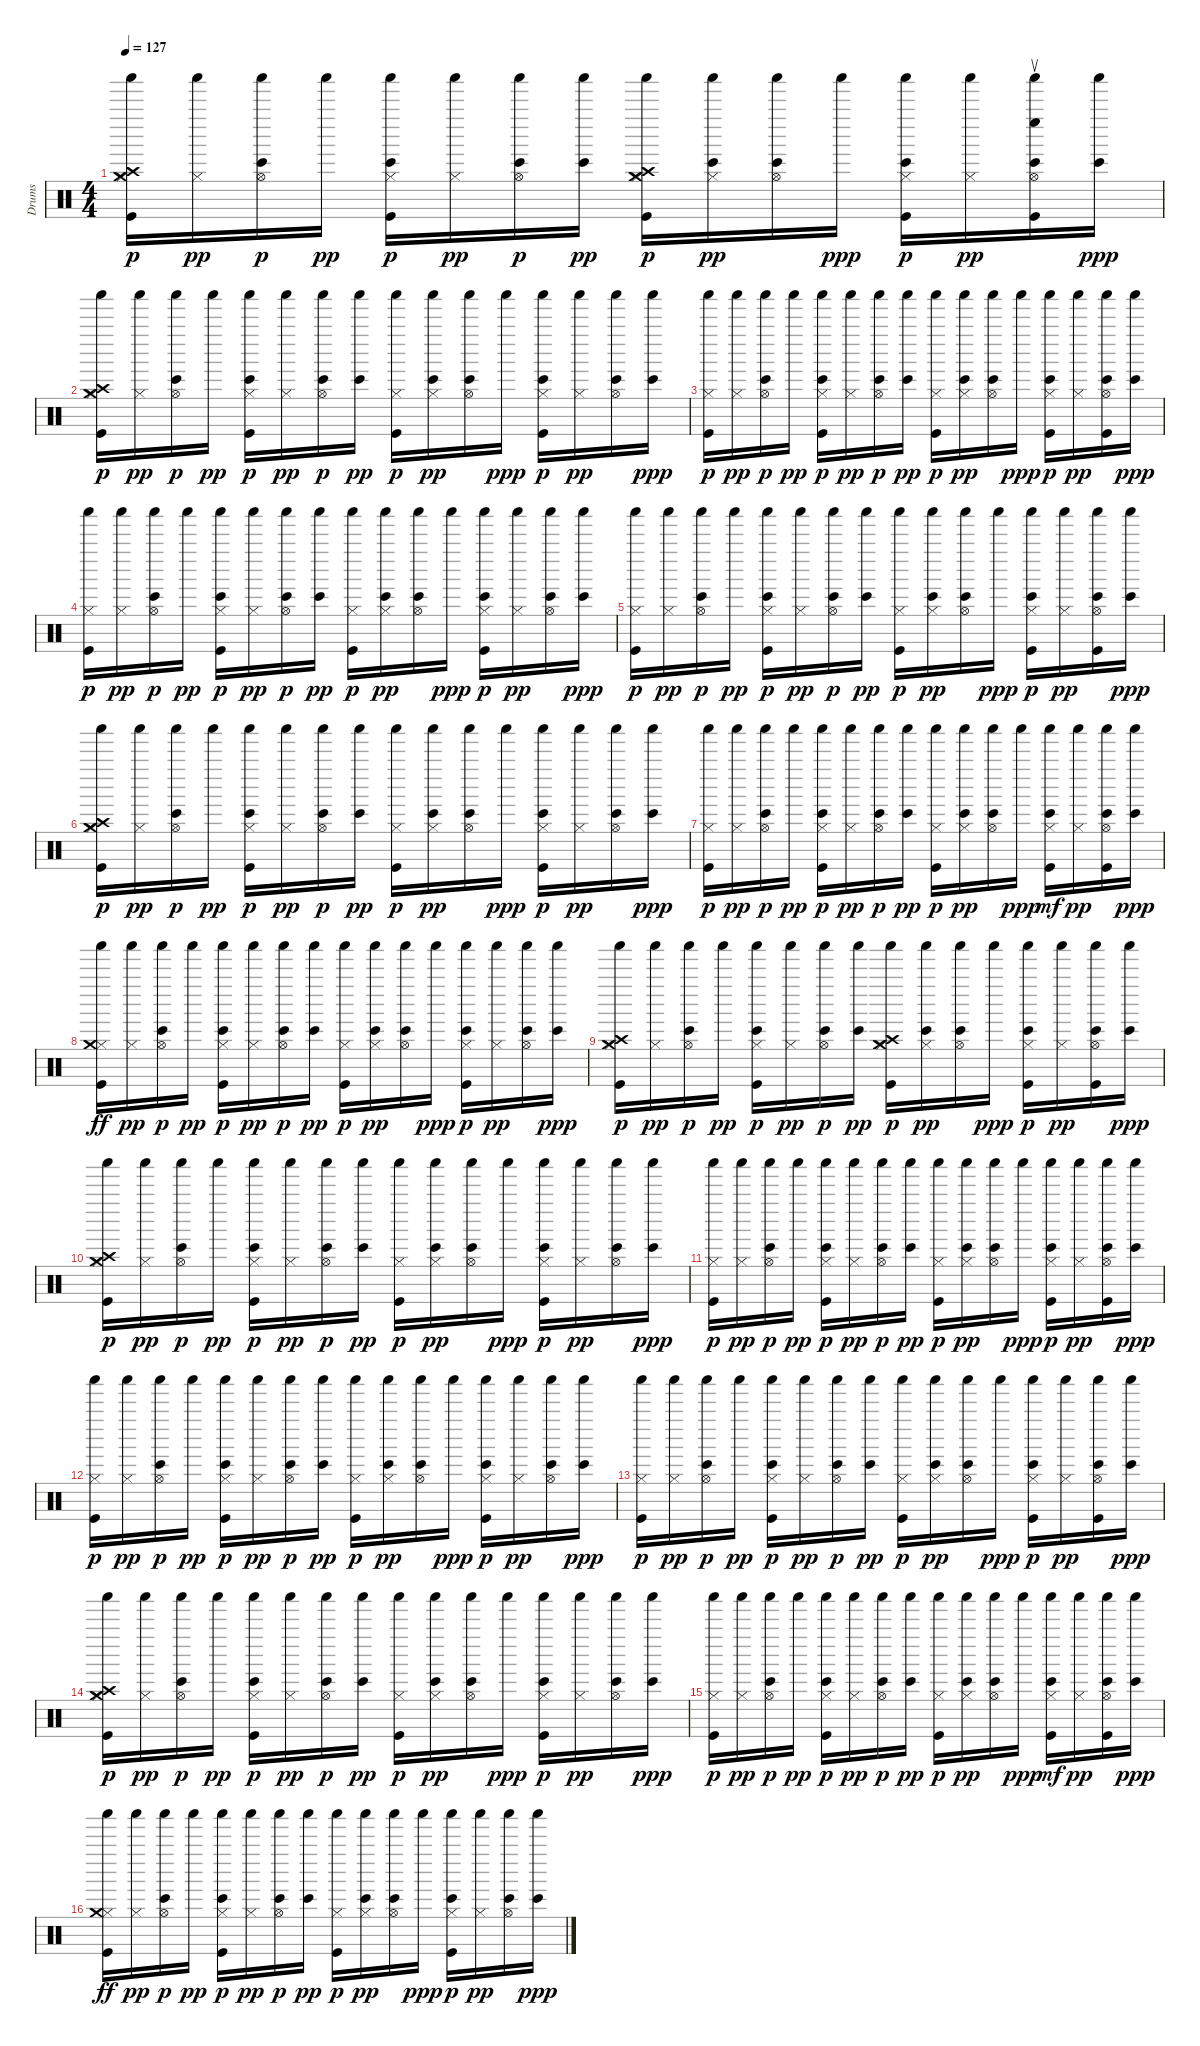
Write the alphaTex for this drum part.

\track ("Drums" "Drums") {instrument percussion}
\staff {score}
\articulation defaults
\ts (4 4)
\tempo 127
\clef neutral
\ks c
("Shaker (hit)" "Crash medium (hit)" "Kick (hit)" "Crash high (hit)" "Hi-Hat (closed)").16{dy p} ("Hi-Hat (closed)" "Shaker (hit)").16{dy pp} ("Bongo High (hit)" "Hi-Hat (open)" "Shaker (hit)").16{dy p} "Shaker (hit)".16{dy pp} ("Bongo High (hit)" "Kick (hit)" "Hi-Hat (closed)" "Shaker (hit)").16{dy p} ("Hi-Hat (closed)" "Shaker (hit)").16{dy pp} ("Bongo High (hit)" "Hi-Hat (open)" "Shaker (hit)").16{dy p} ("Bongo High (hit)" "Shaker (hit)").16{dy pp} ("Shaker (hit)" "Crash high (hit)" "Kick (hit)" "Crash medium (hit)" "Hi-Hat (closed)").16{dy p} ("Bongo High (hit)" "Hi-Hat (closed)" "Shaker (hit)").16{dy pp} ("Bongo High (hit)" "Hi-Hat (open)" "Shaker (hit)").16 "Shaker (hit)".16{dy ppp} ("Bongo High (hit)" "Kick (hit)" "Hi-Hat (closed)" "Shaker (hit)").16{dy p} ("Hi-Hat (closed)" "Shaker (hit)").16{dy pp} ("Kick (hit)" "Bongo High (hit)" "Hi-Hat (open)" "Shaker (hit)" "Left Maraca (return)").16 ("Bongo High (hit)" "Shaker (hit)").16{dy ppp} |
("Hi-Hat (closed)" "Crash medium (hit)" "Shaker (hit)" "Crash high (hit)" "Kick (hit)").16{dy p} ("Hi-Hat (closed)" "Shaker (hit)").16{dy pp} ("Bongo High (hit)" "Hi-Hat (open)" "Shaker (hit)").16{dy p} "Shaker (hit)".16{dy pp} ("Bongo High (hit)" "Kick (hit)" "Hi-Hat (closed)" "Shaker (hit)").16{dy p} ("Hi-Hat (closed)" "Shaker (hit)").16{dy pp} ("Bongo High (hit)" "Hi-Hat (open)" "Shaker (hit)").16{dy p} ("Bongo High (hit)" "Shaker (hit)").16{dy pp} ("Kick (hit)" "Hi-Hat (closed)" "Shaker (hit)").16{dy p} ("Bongo High (hit)" "Hi-Hat (closed)" "Shaker (hit)").16{dy pp} ("Bongo High (hit)" "Hi-Hat (open)" "Shaker (hit)").16 "Shaker (hit)".16{dy ppp} ("Bongo High (hit)" "Kick (hit)" "Hi-Hat (closed)" "Shaker (hit)").16{dy p} ("Hi-Hat (closed)" "Shaker (hit)").16{dy pp} ("Bongo High (hit)" "Hi-Hat (open)" "Shaker (hit)").16 ("Bongo High (hit)" "Shaker (hit)").16{dy ppp} |
("Kick (hit)" "Hi-Hat (closed)" "Shaker (hit)").16{dy p} ("Hi-Hat (closed)" "Shaker (hit)").16{dy pp} ("Bongo High (hit)" "Hi-Hat (open)" "Shaker (hit)").16{dy p} "Shaker (hit)".16{dy pp} ("Bongo High (hit)" "Kick (hit)" "Hi-Hat (closed)" "Shaker (hit)").16{dy p} ("Hi-Hat (closed)" "Shaker (hit)").16{dy pp} ("Bongo High (hit)" "Hi-Hat (open)" "Shaker (hit)").16{dy p} ("Bongo High (hit)" "Shaker (hit)").16{dy pp} ("Kick (hit)" "Hi-Hat (closed)" "Shaker (hit)").16{dy p} ("Bongo High (hit)" "Hi-Hat (closed)" "Shaker (hit)").16{dy pp} ("Bongo High (hit)" "Hi-Hat (open)" "Shaker (hit)").16 "Shaker (hit)".16{dy ppp} ("Bongo High (hit)" "Kick (hit)" "Hi-Hat (closed)" "Shaker (hit)").16{dy p} ("Hi-Hat (closed)" "Shaker (hit)").16{dy pp} ("Kick (hit)" "Bongo High (hit)" "Hi-Hat (open)" "Shaker (hit)").16 ("Bongo High (hit)" "Shaker (hit)").16{dy ppp} |
("Kick (hit)" "Hi-Hat (closed)" "Shaker (hit)").16{dy p} ("Hi-Hat (closed)" "Shaker (hit)").16{dy pp} ("Bongo High (hit)" "Hi-Hat (open)" "Shaker (hit)").16{dy p} "Shaker (hit)".16{dy pp} ("Bongo High (hit)" "Kick (hit)" "Hi-Hat (closed)" "Shaker (hit)").16{dy p} ("Hi-Hat (closed)" "Shaker (hit)").16{dy pp} ("Bongo High (hit)" "Hi-Hat (open)" "Shaker (hit)").16{dy p} ("Bongo High (hit)" "Shaker (hit)").16{dy pp} ("Kick (hit)" "Hi-Hat (closed)" "Shaker (hit)").16{dy p} ("Bongo High (hit)" "Hi-Hat (closed)" "Shaker (hit)").16{dy pp} ("Bongo High (hit)" "Hi-Hat (open)" "Shaker (hit)").16 "Shaker (hit)".16{dy ppp} ("Bongo High (hit)" "Kick (hit)" "Hi-Hat (closed)" "Shaker (hit)").16{dy p} ("Hi-Hat (closed)" "Shaker (hit)").16{dy pp} ("Bongo High (hit)" "Hi-Hat (open)" "Shaker (hit)").16 ("Bongo High (hit)" "Shaker (hit)").16{dy ppp} |
("Kick (hit)" "Hi-Hat (closed)" "Shaker (hit)").16{dy p} ("Hi-Hat (closed)" "Shaker (hit)").16{dy pp} ("Bongo High (hit)" "Hi-Hat (open)" "Shaker (hit)").16{dy p} "Shaker (hit)".16{dy pp} ("Bongo High (hit)" "Kick (hit)" "Hi-Hat (closed)" "Shaker (hit)").16{dy p} ("Hi-Hat (closed)" "Shaker (hit)").16{dy pp} ("Bongo High (hit)" "Hi-Hat (open)" "Shaker (hit)").16{dy p} ("Bongo High (hit)" "Shaker (hit)").16{dy pp} ("Kick (hit)" "Hi-Hat (closed)" "Shaker (hit)").16{dy p} ("Bongo High (hit)" "Hi-Hat (closed)" "Shaker (hit)").16{dy pp} ("Bongo High (hit)" "Hi-Hat (open)" "Shaker (hit)").16 "Shaker (hit)".16{dy ppp} ("Bongo High (hit)" "Kick (hit)" "Hi-Hat (closed)" "Shaker (hit)").16{dy p} ("Hi-Hat (closed)" "Shaker (hit)").16{dy pp} ("Kick (hit)" "Bongo High (hit)" "Hi-Hat (open)" "Shaker (hit)").16 ("Bongo High (hit)" "Shaker (hit)").16{dy ppp} |
("Kick (hit)" "Hi-Hat (closed)" "Crash medium (hit)" "Shaker (hit)" "Crash high (hit)").16{dy p} ("Hi-Hat (closed)" "Shaker (hit)").16{dy pp} ("Bongo High (hit)" "Hi-Hat (open)" "Shaker (hit)").16{dy p} "Shaker (hit)".16{dy pp} ("Bongo High (hit)" "Kick (hit)" "Hi-Hat (closed)" "Shaker (hit)").16{dy p} ("Hi-Hat (closed)" "Shaker (hit)").16{dy pp} ("Bongo High (hit)" "Hi-Hat (open)" "Shaker (hit)").16{dy p} ("Bongo High (hit)" "Shaker (hit)").16{dy pp} ("Kick (hit)" "Hi-Hat (closed)" "Shaker (hit)").16{dy p} ("Bongo High (hit)" "Hi-Hat (closed)" "Shaker (hit)").16{dy pp} ("Bongo High (hit)" "Hi-Hat (open)" "Shaker (hit)").16 "Shaker (hit)".16{dy ppp} ("Bongo High (hit)" "Kick (hit)" "Hi-Hat (closed)" "Shaker (hit)").16{dy p} ("Hi-Hat (closed)" "Shaker (hit)").16{dy pp} ("Bongo High (hit)" "Hi-Hat (open)" "Shaker (hit)").16 ("Bongo High (hit)" "Shaker (hit)").16{dy ppp} |
("Kick (hit)" "Hi-Hat (closed)" "Shaker (hit)").16{dy p} ("Hi-Hat (closed)" "Shaker (hit)").16{dy pp} ("Bongo High (hit)" "Hi-Hat (open)" "Shaker (hit)").16{dy p} "Shaker (hit)".16{dy pp} ("Bongo High (hit)" "Kick (hit)" "Hi-Hat (closed)" "Shaker (hit)").16{dy p} ("Hi-Hat (closed)" "Shaker (hit)").16{dy pp} ("Bongo High (hit)" "Hi-Hat (open)" "Shaker (hit)").16{dy p} ("Bongo High (hit)" "Shaker (hit)").16{dy pp} ("Kick (hit)" "Hi-Hat (closed)" "Shaker (hit)").16{dy p} ("Bongo High (hit)" "Hi-Hat (closed)" "Shaker (hit)").16{dy pp} ("Bongo High (hit)" "Hi-Hat (open)" "Shaker (hit)").16 "Shaker (hit)".16{dy ppp} ("Kick (hit)" "Hi-Hat (closed)" "Shaker (hit)" "Bongo High (hit)").16{dy mf} ("Hi-Hat (closed)" "Shaker (hit)").16{dy pp} ("Kick (hit)" "Bongo High (hit)" "Hi-Hat (open)" "Shaker (hit)").16 ("Bongo High (hit)" "Shaker (hit)").16{dy ppp} |
("Hi-Hat (closed)" "Shaker (hit)" "Crash medium (hit)" "Kick (hit)").16{dy ff} ("Hi-Hat (closed)" "Shaker (hit)").16{dy pp} ("Bongo High (hit)" "Hi-Hat (open)" "Shaker (hit)").16{dy p} "Shaker (hit)".16{dy pp} ("Bongo High (hit)" "Kick (hit)" "Hi-Hat (closed)" "Shaker (hit)").16{dy p} ("Hi-Hat (closed)" "Shaker (hit)").16{dy pp} ("Bongo High (hit)" "Hi-Hat (open)" "Shaker (hit)").16{dy p} ("Bongo High (hit)" "Shaker (hit)").16{dy pp} ("Kick (hit)" "Hi-Hat (closed)" "Shaker (hit)").16{dy p} ("Bongo High (hit)" "Hi-Hat (closed)" "Shaker (hit)").16{dy pp} ("Bongo High (hit)" "Hi-Hat (open)" "Shaker (hit)").16 "Shaker (hit)".16{dy ppp} ("Bongo High (hit)" "Kick (hit)" "Hi-Hat (closed)" "Shaker (hit)").16{dy p} ("Hi-Hat (closed)" "Shaker (hit)").16{dy pp} ("Bongo High (hit)" "Hi-Hat (open)" "Shaker (hit)").16 ("Bongo High (hit)" "Shaker (hit)").16{dy ppp} |
("Shaker (hit)" "Crash medium (hit)" "Kick (hit)" "Crash high (hit)" "Hi-Hat (closed)").16{dy p} ("Hi-Hat (closed)" "Shaker (hit)").16{dy pp} ("Bongo High (hit)" "Hi-Hat (open)" "Shaker (hit)").16{dy p} "Shaker (hit)".16{dy pp} ("Bongo High (hit)" "Kick (hit)" "Hi-Hat (closed)" "Shaker (hit)").16{dy p} ("Hi-Hat (closed)" "Shaker (hit)").16{dy pp} ("Bongo High (hit)" "Hi-Hat (open)" "Shaker (hit)").16{dy p} ("Bongo High (hit)" "Shaker (hit)").16{dy pp} ("Shaker (hit)" "Crash high (hit)" "Kick (hit)" "Crash medium (hit)" "Hi-Hat (closed)").16{dy p} ("Bongo High (hit)" "Hi-Hat (closed)" "Shaker (hit)").16{dy pp} ("Bongo High (hit)" "Hi-Hat (open)" "Shaker (hit)").16 "Shaker (hit)".16{dy ppp} ("Bongo High (hit)" "Kick (hit)" "Hi-Hat (closed)" "Shaker (hit)").16{dy p} ("Hi-Hat (closed)" "Shaker (hit)").16{dy pp} ("Kick (hit)" "Bongo High (hit)" "Hi-Hat (open)" "Shaker (hit)").16 ("Bongo High (hit)" "Shaker (hit)").16{dy ppp} |
("Hi-Hat (closed)" "Crash medium (hit)" "Shaker (hit)" "Crash high (hit)" "Kick (hit)").16{dy p} ("Hi-Hat (closed)" "Shaker (hit)").16{dy pp} ("Bongo High (hit)" "Hi-Hat (open)" "Shaker (hit)").16{dy p} "Shaker (hit)".16{dy pp} ("Bongo High (hit)" "Kick (hit)" "Hi-Hat (closed)" "Shaker (hit)").16{dy p} ("Hi-Hat (closed)" "Shaker (hit)").16{dy pp} ("Bongo High (hit)" "Hi-Hat (open)" "Shaker (hit)").16{dy p} ("Bongo High (hit)" "Shaker (hit)").16{dy pp} ("Kick (hit)" "Hi-Hat (closed)" "Shaker (hit)").16{dy p} ("Bongo High (hit)" "Hi-Hat (closed)" "Shaker (hit)").16{dy pp} ("Bongo High (hit)" "Hi-Hat (open)" "Shaker (hit)").16 "Shaker (hit)".16{dy ppp} ("Bongo High (hit)" "Kick (hit)" "Hi-Hat (closed)" "Shaker (hit)").16{dy p} ("Hi-Hat (closed)" "Shaker (hit)").16{dy pp} ("Bongo High (hit)" "Hi-Hat (open)" "Shaker (hit)").16 ("Bongo High (hit)" "Shaker (hit)").16{dy ppp} |
("Kick (hit)" "Hi-Hat (closed)" "Shaker (hit)").16{dy p} ("Hi-Hat (closed)" "Shaker (hit)").16{dy pp} ("Bongo High (hit)" "Hi-Hat (open)" "Shaker (hit)").16{dy p} "Shaker (hit)".16{dy pp} ("Bongo High (hit)" "Kick (hit)" "Hi-Hat (closed)" "Shaker (hit)").16{dy p} ("Hi-Hat (closed)" "Shaker (hit)").16{dy pp} ("Bongo High (hit)" "Hi-Hat (open)" "Shaker (hit)").16{dy p} ("Bongo High (hit)" "Shaker (hit)").16{dy pp} ("Kick (hit)" "Hi-Hat (closed)" "Shaker (hit)").16{dy p} ("Bongo High (hit)" "Hi-Hat (closed)" "Shaker (hit)").16{dy pp} ("Bongo High (hit)" "Hi-Hat (open)" "Shaker (hit)").16 "Shaker (hit)".16{dy ppp} ("Bongo High (hit)" "Kick (hit)" "Hi-Hat (closed)" "Shaker (hit)").16{dy p} ("Hi-Hat (closed)" "Shaker (hit)").16{dy pp} ("Kick (hit)" "Bongo High (hit)" "Hi-Hat (open)" "Shaker (hit)").16 ("Bongo High (hit)" "Shaker (hit)").16{dy ppp} |
("Kick (hit)" "Hi-Hat (closed)" "Shaker (hit)").16{dy p} ("Hi-Hat (closed)" "Shaker (hit)").16{dy pp} ("Bongo High (hit)" "Hi-Hat (open)" "Shaker (hit)").16{dy p} "Shaker (hit)".16{dy pp} ("Bongo High (hit)" "Kick (hit)" "Hi-Hat (closed)" "Shaker (hit)").16{dy p} ("Hi-Hat (closed)" "Shaker (hit)").16{dy pp} ("Bongo High (hit)" "Hi-Hat (open)" "Shaker (hit)").16{dy p} ("Bongo High (hit)" "Shaker (hit)").16{dy pp} ("Kick (hit)" "Hi-Hat (closed)" "Shaker (hit)").16{dy p} ("Bongo High (hit)" "Hi-Hat (closed)" "Shaker (hit)").16{dy pp} ("Bongo High (hit)" "Hi-Hat (open)" "Shaker (hit)").16 "Shaker (hit)".16{dy ppp} ("Bongo High (hit)" "Kick (hit)" "Hi-Hat (closed)" "Shaker (hit)").16{dy p} ("Hi-Hat (closed)" "Shaker (hit)").16{dy pp} ("Bongo High (hit)" "Hi-Hat (open)" "Shaker (hit)").16 ("Bongo High (hit)" "Shaker (hit)").16{dy ppp} |
("Kick (hit)" "Hi-Hat (closed)" "Shaker (hit)").16{dy p} ("Hi-Hat (closed)" "Shaker (hit)").16{dy pp} ("Bongo High (hit)" "Hi-Hat (open)" "Shaker (hit)").16{dy p} "Shaker (hit)".16{dy pp} ("Bongo High (hit)" "Kick (hit)" "Hi-Hat (closed)" "Shaker (hit)").16{dy p} ("Hi-Hat (closed)" "Shaker (hit)").16{dy pp} ("Bongo High (hit)" "Hi-Hat (open)" "Shaker (hit)").16{dy p} ("Bongo High (hit)" "Shaker (hit)").16{dy pp} ("Kick (hit)" "Hi-Hat (closed)" "Shaker (hit)").16{dy p} ("Bongo High (hit)" "Hi-Hat (closed)" "Shaker (hit)").16{dy pp} ("Bongo High (hit)" "Hi-Hat (open)" "Shaker (hit)").16 "Shaker (hit)".16{dy ppp} ("Bongo High (hit)" "Kick (hit)" "Hi-Hat (closed)" "Shaker (hit)").16{dy p} ("Hi-Hat (closed)" "Shaker (hit)").16{dy pp} ("Kick (hit)" "Bongo High (hit)" "Hi-Hat (open)" "Shaker (hit)").16 ("Bongo High (hit)" "Shaker (hit)").16{dy ppp} |
("Kick (hit)" "Hi-Hat (closed)" "Crash medium (hit)" "Shaker (hit)" "Crash high (hit)").16{dy p} ("Hi-Hat (closed)" "Shaker (hit)").16{dy pp} ("Bongo High (hit)" "Hi-Hat (open)" "Shaker (hit)").16{dy p} "Shaker (hit)".16{dy pp} ("Bongo High (hit)" "Kick (hit)" "Hi-Hat (closed)" "Shaker (hit)").16{dy p} ("Hi-Hat (closed)" "Shaker (hit)").16{dy pp} ("Bongo High (hit)" "Hi-Hat (open)" "Shaker (hit)").16{dy p} ("Bongo High (hit)" "Shaker (hit)").16{dy pp} ("Kick (hit)" "Hi-Hat (closed)" "Shaker (hit)").16{dy p} ("Bongo High (hit)" "Hi-Hat (closed)" "Shaker (hit)").16{dy pp} ("Bongo High (hit)" "Hi-Hat (open)" "Shaker (hit)").16 "Shaker (hit)".16{dy ppp} ("Bongo High (hit)" "Kick (hit)" "Hi-Hat (closed)" "Shaker (hit)").16{dy p} ("Hi-Hat (closed)" "Shaker (hit)").16{dy pp} ("Bongo High (hit)" "Hi-Hat (open)" "Shaker (hit)").16 ("Bongo High (hit)" "Shaker (hit)").16{dy ppp} |
("Kick (hit)" "Hi-Hat (closed)" "Shaker (hit)").16{dy p} ("Hi-Hat (closed)" "Shaker (hit)").16{dy pp} ("Bongo High (hit)" "Hi-Hat (open)" "Shaker (hit)").16{dy p} "Shaker (hit)".16{dy pp} ("Bongo High (hit)" "Kick (hit)" "Hi-Hat (closed)" "Shaker (hit)").16{dy p} ("Hi-Hat (closed)" "Shaker (hit)").16{dy pp} ("Bongo High (hit)" "Hi-Hat (open)" "Shaker (hit)").16{dy p} ("Bongo High (hit)" "Shaker (hit)").16{dy pp} ("Kick (hit)" "Hi-Hat (closed)" "Shaker (hit)").16{dy p} ("Bongo High (hit)" "Hi-Hat (closed)" "Shaker (hit)").16{dy pp} ("Bongo High (hit)" "Hi-Hat (open)" "Shaker (hit)").16 "Shaker (hit)".16{dy ppp} ("Kick (hit)" "Hi-Hat (closed)" "Shaker (hit)" "Bongo High (hit)").16{dy mf} ("Hi-Hat (closed)" "Shaker (hit)").16{dy pp} ("Kick (hit)" "Bongo High (hit)" "Hi-Hat (open)" "Shaker (hit)").16 ("Bongo High (hit)" "Shaker (hit)").16{dy ppp} |
("Hi-Hat (closed)" "Shaker (hit)" "Crash medium (hit)" "Kick (hit)").16{dy ff} ("Hi-Hat (closed)" "Shaker (hit)").16{dy pp} ("Bongo High (hit)" "Hi-Hat (open)" "Shaker (hit)").16{dy p volume 13} "Shaker (hit)".16{dy pp volume 13} ("Bongo High (hit)" "Kick (hit)" "Hi-Hat (closed)" "Shaker (hit)").16{dy p volume 13} ("Hi-Hat (closed)" "Shaker (hit)").16{dy pp volume 13} ("Bongo High (hit)" "Hi-Hat (open)" "Shaker (hit)").16{dy p volume 13} ("Bongo High (hit)" "Shaker (hit)").16{dy pp volume 13} ("Kick (hit)" "Hi-Hat (closed)" "Shaker (hit)").16{dy p volume 12} ("Bongo High (hit)" "Hi-Hat (closed)" "Shaker (hit)").16{dy pp volume 12} ("Bongo High (hit)" "Hi-Hat (open)" "Shaker (hit)").16{volume 12} "Shaker (hit)".16{dy ppp volume 12} ("Bongo High (hit)" "Kick (hit)" "Hi-Hat (closed)" "Shaker (hit)").16{dy p volume 12} ("Hi-Hat (closed)" "Shaker (hit)").16{dy pp volume 12} ("Bongo High (hit)" "Hi-Hat (open)" "Shaker (hit)").16{volume 12} ("Bongo High (hit)" "Shaker (hit)").16{dy ppp volume 12}
